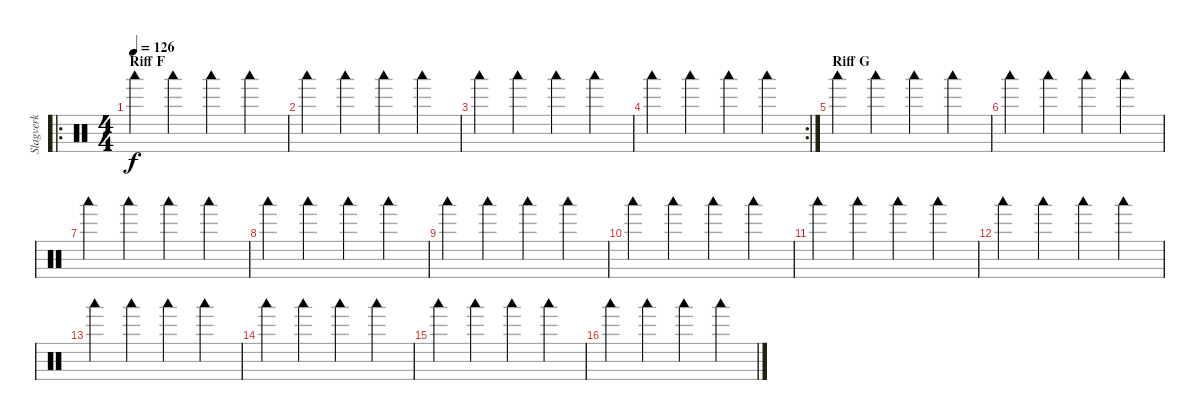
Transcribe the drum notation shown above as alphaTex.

\track ("Slagverk" "Slagverk") {instrument percussion}
\staff {score}
\articulation defaults
\ro
\ts (4 4)
\section ("" "Riff F")
\tempo 126
\clef neutral
\ks c "Woodblock low (hit)".4{dy f} "Woodblock low (hit)".4 "Woodblock low (hit)".4 "Woodblock low (hit)".4
|
"Woodblock low (hit)".4 "Woodblock low (hit)".4 "Woodblock low (hit)".4 "Woodblock low (hit)".4 |
"Woodblock low (hit)".4 "Woodblock low (hit)".4 "Woodblock low (hit)".4 "Woodblock low (hit)".4 |
\rc 2 "Woodblock low (hit)".4 "Woodblock low (hit)".4 "Woodblock low (hit)".4 "Woodblock low (hit)".4
|
\section ("" "Riff G")
"Woodblock low (hit)".4 "Woodblock low (hit)".4 "Woodblock low (hit)".4 "Woodblock low (hit)".4 |
"Woodblock low (hit)".4 "Woodblock low (hit)".4 "Woodblock low (hit)".4 "Woodblock low (hit)".4 |
"Woodblock low (hit)".4 "Woodblock low (hit)".4 "Woodblock low (hit)".4 "Woodblock low (hit)".4 |
"Woodblock low (hit)".4 "Woodblock low (hit)".4 "Woodblock low (hit)".4 "Woodblock low (hit)".4 |
"Woodblock low (hit)".4 "Woodblock low (hit)".4 "Woodblock low (hit)".4 "Woodblock low (hit)".4 |
"Woodblock low (hit)".4 "Woodblock low (hit)".4 "Woodblock low (hit)".4 "Woodblock low (hit)".4 |
"Woodblock low (hit)".4 "Woodblock low (hit)".4 "Woodblock low (hit)".4 "Woodblock low (hit)".4 |
"Woodblock low (hit)".4 "Woodblock low (hit)".4 "Woodblock low (hit)".4 "Woodblock low (hit)".4 |
"Woodblock low (hit)".4 "Woodblock low (hit)".4 "Woodblock low (hit)".4 "Woodblock low (hit)".4 |
"Woodblock low (hit)".4 "Woodblock low (hit)".4 "Woodblock low (hit)".4 "Woodblock low (hit)".4 |
"Woodblock low (hit)".4 "Woodblock low (hit)".4 "Woodblock low (hit)".4 "Woodblock low (hit)".4 |
"Woodblock low (hit)".4 "Woodblock low (hit)".4 "Woodblock low (hit)".4 "Woodblock low (hit)".4
